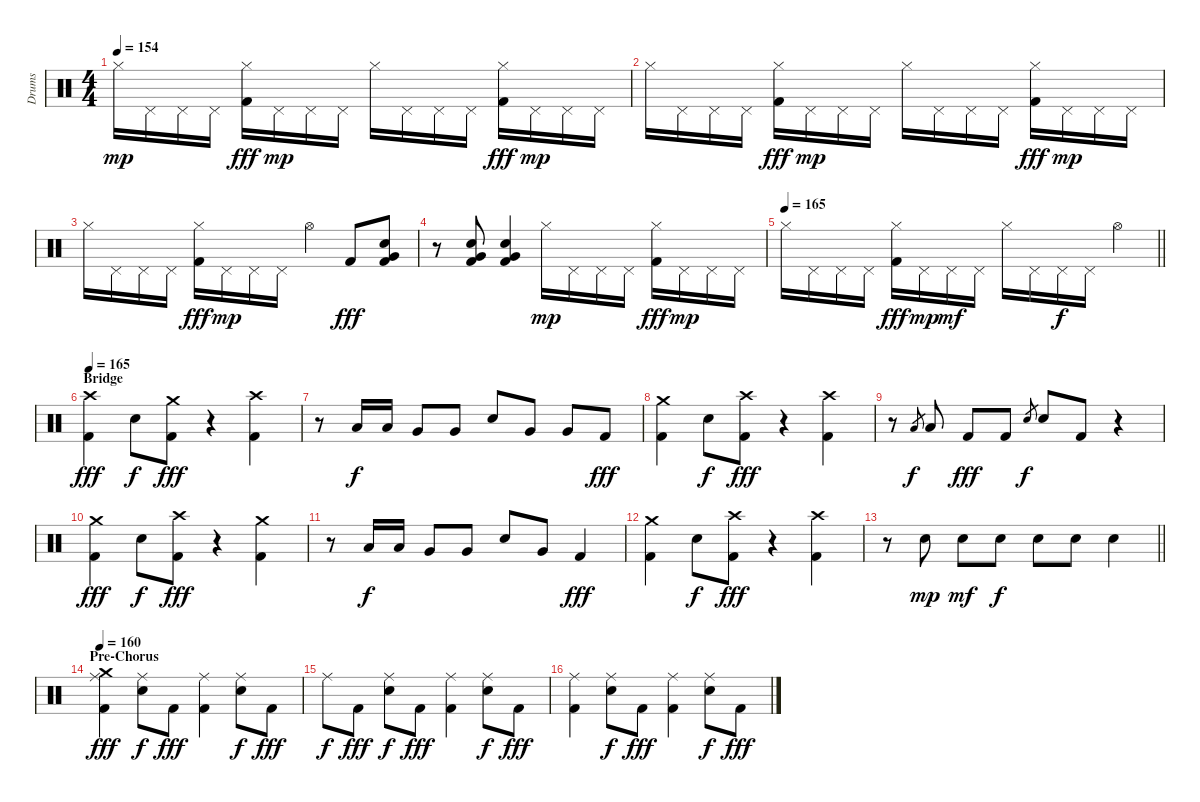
\track ("Drums" "Drums") {instrument percussion}
\staff {score}
\articulation defaults
\ts (4 4)
\tempo 154
\clef neutral
\ks c "Hi-Hat (closed)".16{dy mp} "Pedal Hi-Hat (hit)".16 "Pedal Hi-Hat (hit)".16 "Pedal Hi-Hat (hit)".16
("Hi-Hat (closed)" "Kick (hit) 2").16{dy fff} "Pedal Hi-Hat (hit)".16{dy mp} "Pedal Hi-Hat (hit)".16 "Pedal Hi-Hat (hit)".16 "Hi-Hat (closed)".16 "Pedal Hi-Hat (hit)".16 "Pedal Hi-Hat (hit)".16 "Pedal Hi-Hat (hit)".16 ("Hi-Hat (closed)" "Kick (hit) 2").16{dy fff} "Pedal Hi-Hat (hit)".16{dy mp} "Pedal Hi-Hat (hit)".16 "Pedal Hi-Hat (hit)".16 |
"Hi-Hat (closed)".16 "Pedal Hi-Hat (hit)".16 "Pedal Hi-Hat (hit)".16 "Pedal Hi-Hat (hit)".16 ("Hi-Hat (closed)" "Kick (hit) 2").16{dy fff} "Pedal Hi-Hat (hit)".16{dy mp} "Pedal Hi-Hat (hit)".16 "Pedal Hi-Hat (hit)".16 "Hi-Hat (closed)".16 "Pedal Hi-Hat (hit)".16 "Pedal Hi-Hat (hit)".16 "Pedal Hi-Hat (hit)".16 ("Hi-Hat (closed)" "Kick (hit) 2").16{dy fff} "Pedal Hi-Hat (hit)".16{dy mp} "Pedal Hi-Hat (hit)".16 "Pedal Hi-Hat (hit)".16 |
"Hi-Hat (closed)".16 "Pedal Hi-Hat (hit)".16 "Pedal Hi-Hat (hit)".16 "Pedal Hi-Hat (hit)".16 ("Hi-Hat (closed)" "Kick (hit) 2").16{dy fff} "Pedal Hi-Hat (hit)".16{dy mp} "Pedal Hi-Hat (hit)".16 "Pedal Hi-Hat (hit)".16 "Hi-Hat (open)".4 "Kick (hit) 2".8{dy fff} ("Electric Snare (hit)" "Very Low Tom (hit)" "Kick (hit) 2").8 |
r.8 ("Electric Snare (hit)" "Very Low Tom (hit)" "Kick (hit) 2").8 ("Electric Snare (hit)" "Very Low Tom (hit)" "Kick (hit) 2").4 "Hi-Hat (closed)".16{dy mp} "Pedal Hi-Hat (hit)".16 "Pedal Hi-Hat (hit)".16 "Pedal Hi-Hat (hit)".16 ("Hi-Hat (closed)" "Kick (hit) 2").16{dy fff} "Pedal Hi-Hat (hit)".16{dy mp} "Pedal Hi-Hat (hit)".16 "Pedal Hi-Hat (hit)".16 |
\tempo 165
\barLineRight lightlight "Hi-Hat (closed)".16 "Pedal Hi-Hat (hit)".16 "Pedal Hi-Hat (hit)".16 "Pedal Hi-Hat (hit)".16
("Hi-Hat (closed)" "Kick (hit) 2").16{dy fff} "Pedal Hi-Hat (hit)".16{dy mp} "Pedal Hi-Hat (hit)".16{dy mf} "Pedal Hi-Hat (hit)".16 "Hi-Hat (closed)".16 "Pedal Hi-Hat (hit)".16 "Pedal Hi-Hat (hit)".16{dy f} "Pedal Hi-Hat (hit)".16 "Hi-Hat (open)".4 |
\section ("" "Bridge")
\tempo 165
("Crash high (hit)" "Kick (hit) 2").4{dy fff} "Electric Snare (hit)".8{dy f} ("Crash medium (hit)" "Kick (hit) 2").8{dy fff} r.4 ("Crash high (hit)" "Kick (hit) 2").4 |
r.8 "Low Tom (hit)".16{dy f} "Low Tom (hit)".16 "Very Low Tom (hit)".8 "Very Low Tom (hit)".8 "Electric Snare (hit)".8 "Very Low Tom (hit)".8 "Very Low Tom (hit)".8 "Kick (hit) 2".8{dy fff} |
("Crash medium (hit)" "Kick (hit) 2").4 "Electric Snare (hit)".8{dy f} ("Crash high (hit)" "Kick (hit) 2").8{dy fff} r.4 ("Crash high (hit)" "Kick (hit) 2").4 |
r.8 "Low Floor Tom (hit)".8{gr dy f} "Low Floor Tom (hit)".8 "Kick (hit) 2".8{dy fff} "Kick (hit) 2".8 "Electric Snare (hit)".8{gr dy f} "Electric Snare (hit)".8 "Kick (hit) 2".8 r.4 |
("Crash medium (hit)" "Kick (hit) 2").4{dy fff} "Electric Snare (hit)".8{dy f} ("Crash high (hit)" "Kick (hit) 2").8{dy fff} r.4 ("Crash medium (hit)" "Kick (hit) 2").4 |
r.8 "Low Tom (hit)".16{dy f} "Low Tom (hit)".16 "Very Low Tom (hit)".8 "Very Low Tom (hit)".8 "Electric Snare (hit)".8 "Very Low Tom (hit)".8 "Kick (hit) 2".4{dy fff} |
("Crash medium (hit)" "Kick (hit) 2").4 "Electric Snare (hit)".8{dy f} ("Crash high (hit)" "Kick (hit) 2").8{dy fff} r.4 ("Crash high (hit)" "Kick (hit) 2").4 |
\barLineRight lightlight
r.8 "Electric Snare (hit)".8{dy mp} "Electric Snare (hit)".8{dy mf} "Electric Snare (hit)".8{dy f} "Electric Snare (hit)".8 "Electric Snare (hit)".8 "Electric Snare (hit)".4 |
\section ("" "Pre-Chorus")
\tempo 160
("Crash medium (hit)" "Ride (middle)" "Kick (hit) 2").4{dy fff} ("Ride (middle)" "Electric Snare (hit)").8{dy f} "Kick (hit) 2".8{dy fff} ("Ride (middle)" "Kick (hit) 2").4 ("Ride (middle)" "Electric Snare (hit)").8{dy f} "Kick (hit) 2".8{dy fff} |
"Ride (middle)".8{dy f} "Kick (hit) 2".8{dy fff} ("Ride (middle)" "Electric Snare (hit)").8{dy f} "Kick (hit) 2".8{dy fff} ("Ride (middle)" "Kick (hit) 2").4 ("Ride (middle)" "Electric Snare (hit)").8{dy f} "Kick (hit) 2".8{dy fff} |
("Ride (middle)" "Kick (hit) 2").4 ("Ride (middle)" "Electric Snare (hit)").8{dy f} "Kick (hit) 2".8{dy fff} ("Ride (middle)" "Kick (hit) 2").4 ("Ride (middle)" "Electric Snare (hit)").8{dy f} "Kick (hit) 2".8{dy fff}
